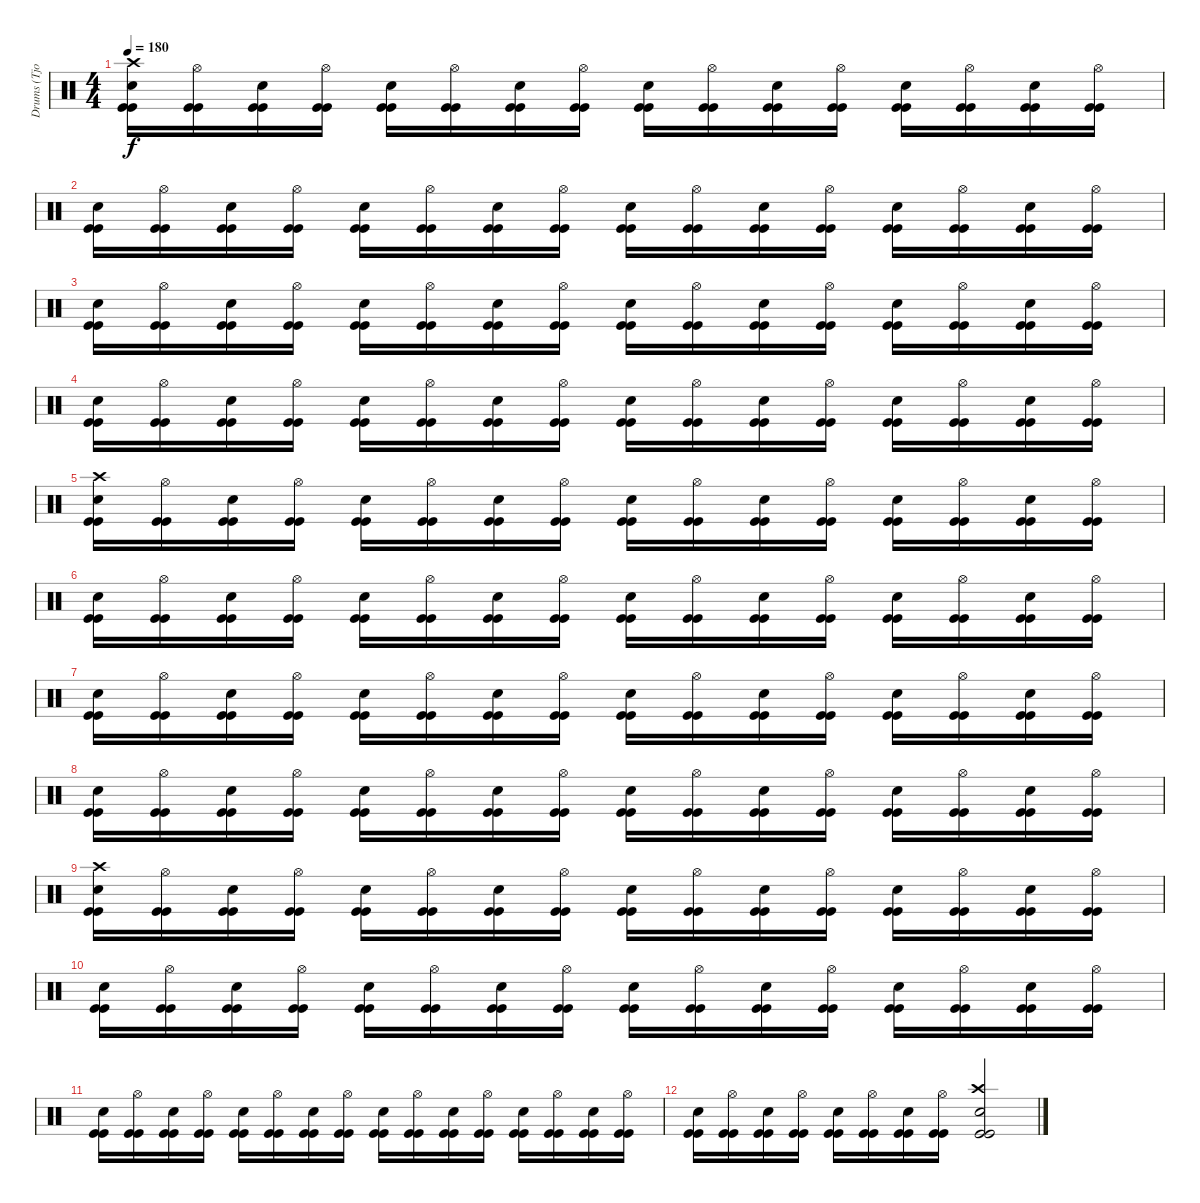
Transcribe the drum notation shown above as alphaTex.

\track ("Drums (Tjodalv)" "Drums (Tjo") {instrument percussion}
\staff {score}
\articulation defaults
\ts (4 4)
\tempo 180
\clef neutral
\ks c
("Snare (hit) 2" "Crash high (hit)" "Kick (hit)" "Kick (hit)").16{dy f} ("Hi-Hat (open)" "Kick (hit)" "Kick (hit)").16 ("Snare (hit) 2" "Kick (hit)" "Kick (hit)").16 ("Hi-Hat (open)" "Kick (hit)" "Kick (hit)").16 ("Snare (hit) 2" "Kick (hit)" "Kick (hit)").16 ("Hi-Hat (open)" "Kick (hit)" "Kick (hit)").16 ("Snare (hit) 2" "Kick (hit)" "Kick (hit)").16 ("Hi-Hat (open)" "Kick (hit)" "Kick (hit)").16 ("Snare (hit) 2" "Kick (hit)" "Kick (hit)").16 ("Hi-Hat (open)" "Kick (hit)" "Kick (hit)").16 ("Snare (hit) 2" "Kick (hit)" "Kick (hit)").16 ("Hi-Hat (open)" "Kick (hit)" "Kick (hit)").16 ("Snare (hit) 2" "Kick (hit)" "Kick (hit)").16 ("Hi-Hat (open)" "Kick (hit)" "Kick (hit)").16 ("Snare (hit) 2" "Kick (hit)" "Kick (hit)").16 ("Hi-Hat (open)" "Kick (hit)" "Kick (hit)").16 |
("Snare (hit) 2" "Kick (hit)" "Kick (hit)").16 ("Hi-Hat (open)" "Kick (hit)" "Kick (hit)").16 ("Snare (hit) 2" "Kick (hit)" "Kick (hit)").16 ("Hi-Hat (open)" "Kick (hit)" "Kick (hit)").16 ("Snare (hit) 2" "Kick (hit)" "Kick (hit)").16 ("Hi-Hat (open)" "Kick (hit)" "Kick (hit)").16 ("Snare (hit) 2" "Kick (hit)" "Kick (hit)").16 ("Hi-Hat (open)" "Kick (hit)" "Kick (hit)").16 ("Snare (hit) 2" "Kick (hit)" "Kick (hit)").16 ("Hi-Hat (open)" "Kick (hit)" "Kick (hit)").16 ("Snare (hit) 2" "Kick (hit)" "Kick (hit)").16 ("Hi-Hat (open)" "Kick (hit)" "Kick (hit)").16 ("Snare (hit) 2" "Kick (hit)" "Kick (hit)").16 ("Hi-Hat (open)" "Kick (hit)" "Kick (hit)").16 ("Snare (hit) 2" "Kick (hit)" "Kick (hit)").16 ("Hi-Hat (open)" "Kick (hit)" "Kick (hit)").16 |
("Snare (hit) 2" "Kick (hit)" "Kick (hit)").16 ("Hi-Hat (open)" "Kick (hit)" "Kick (hit)").16 ("Snare (hit) 2" "Kick (hit)" "Kick (hit)").16 ("Hi-Hat (open)" "Kick (hit)" "Kick (hit)").16 ("Snare (hit) 2" "Kick (hit)" "Kick (hit)").16 ("Hi-Hat (open)" "Kick (hit)" "Kick (hit)").16 ("Snare (hit) 2" "Kick (hit)" "Kick (hit)").16 ("Hi-Hat (open)" "Kick (hit)" "Kick (hit)").16 ("Snare (hit) 2" "Kick (hit)" "Kick (hit)").16 ("Hi-Hat (open)" "Kick (hit)" "Kick (hit)").16 ("Snare (hit) 2" "Kick (hit)" "Kick (hit)").16 ("Hi-Hat (open)" "Kick (hit)" "Kick (hit)").16 ("Snare (hit) 2" "Kick (hit)" "Kick (hit)").16 ("Hi-Hat (open)" "Kick (hit)" "Kick (hit)").16 ("Snare (hit) 2" "Kick (hit)" "Kick (hit)").16 ("Hi-Hat (open)" "Kick (hit)" "Kick (hit)").16 |
("Snare (hit) 2" "Kick (hit)" "Kick (hit)").16 ("Hi-Hat (open)" "Kick (hit)" "Kick (hit)").16 ("Snare (hit) 2" "Kick (hit)" "Kick (hit)").16 ("Hi-Hat (open)" "Kick (hit)" "Kick (hit)").16 ("Snare (hit) 2" "Kick (hit)" "Kick (hit)").16 ("Hi-Hat (open)" "Kick (hit)" "Kick (hit)").16 ("Snare (hit) 2" "Kick (hit)" "Kick (hit)").16 ("Hi-Hat (open)" "Kick (hit)" "Kick (hit)").16 ("Snare (hit) 2" "Kick (hit)" "Kick (hit)").16 ("Hi-Hat (open)" "Kick (hit)" "Kick (hit)").16 ("Snare (hit) 2" "Kick (hit)" "Kick (hit)").16 ("Hi-Hat (open)" "Kick (hit)" "Kick (hit)").16 ("Snare (hit) 2" "Kick (hit)" "Kick (hit)").16 ("Hi-Hat (open)" "Kick (hit)" "Kick (hit)").16 ("Snare (hit) 2" "Kick (hit)" "Kick (hit)").16 ("Hi-Hat (open)" "Kick (hit)" "Kick (hit)").16 |
("Snare (hit) 2" "Crash high (hit)" "Kick (hit)" "Kick (hit)").16 ("Hi-Hat (open)" "Kick (hit)" "Kick (hit)").16 ("Snare (hit) 2" "Kick (hit)" "Kick (hit)").16 ("Hi-Hat (open)" "Kick (hit)" "Kick (hit)").16 ("Snare (hit) 2" "Kick (hit)" "Kick (hit)").16 ("Hi-Hat (open)" "Kick (hit)" "Kick (hit)").16 ("Snare (hit) 2" "Kick (hit)" "Kick (hit)").16 ("Hi-Hat (open)" "Kick (hit)" "Kick (hit)").16 ("Snare (hit) 2" "Kick (hit)" "Kick (hit)").16 ("Hi-Hat (open)" "Kick (hit)" "Kick (hit)").16 ("Snare (hit) 2" "Kick (hit)" "Kick (hit)").16 ("Hi-Hat (open)" "Kick (hit)" "Kick (hit)").16 ("Snare (hit) 2" "Kick (hit)" "Kick (hit)").16 ("Hi-Hat (open)" "Kick (hit)" "Kick (hit)").16 ("Snare (hit) 2" "Kick (hit)" "Kick (hit)").16 ("Hi-Hat (open)" "Kick (hit)" "Kick (hit)").16 |
("Snare (hit) 2" "Kick (hit)" "Kick (hit)").16 ("Hi-Hat (open)" "Kick (hit)" "Kick (hit)").16 ("Snare (hit) 2" "Kick (hit)" "Kick (hit)").16 ("Hi-Hat (open)" "Kick (hit)" "Kick (hit)").16 ("Snare (hit) 2" "Kick (hit)" "Kick (hit)").16 ("Hi-Hat (open)" "Kick (hit)" "Kick (hit)").16 ("Snare (hit) 2" "Kick (hit)" "Kick (hit)").16 ("Hi-Hat (open)" "Kick (hit)" "Kick (hit)").16 ("Snare (hit) 2" "Kick (hit)" "Kick (hit)").16 ("Hi-Hat (open)" "Kick (hit)" "Kick (hit)").16 ("Snare (hit) 2" "Kick (hit)" "Kick (hit)").16 ("Hi-Hat (open)" "Kick (hit)" "Kick (hit)").16 ("Snare (hit) 2" "Kick (hit)" "Kick (hit)").16 ("Hi-Hat (open)" "Kick (hit)" "Kick (hit)").16 ("Snare (hit) 2" "Kick (hit)" "Kick (hit)").16 ("Hi-Hat (open)" "Kick (hit)" "Kick (hit)").16 |
("Snare (hit) 2" "Kick (hit)" "Kick (hit)").16 ("Hi-Hat (open)" "Kick (hit)" "Kick (hit)").16 ("Snare (hit) 2" "Kick (hit)" "Kick (hit)").16 ("Hi-Hat (open)" "Kick (hit)" "Kick (hit)").16 ("Snare (hit) 2" "Kick (hit)" "Kick (hit)").16 ("Hi-Hat (open)" "Kick (hit)" "Kick (hit)").16 ("Snare (hit) 2" "Kick (hit)" "Kick (hit)").16 ("Hi-Hat (open)" "Kick (hit)" "Kick (hit)").16 ("Snare (hit) 2" "Kick (hit)" "Kick (hit)").16 ("Hi-Hat (open)" "Kick (hit)" "Kick (hit)").16 ("Snare (hit) 2" "Kick (hit)" "Kick (hit)").16 ("Hi-Hat (open)" "Kick (hit)" "Kick (hit)").16 ("Snare (hit) 2" "Kick (hit)" "Kick (hit)").16 ("Hi-Hat (open)" "Kick (hit)" "Kick (hit)").16 ("Snare (hit) 2" "Kick (hit)" "Kick (hit)").16 ("Hi-Hat (open)" "Kick (hit)" "Kick (hit)").16 |
("Snare (hit) 2" "Kick (hit)" "Kick (hit)").16 ("Hi-Hat (open)" "Kick (hit)" "Kick (hit)").16 ("Snare (hit) 2" "Kick (hit)" "Kick (hit)").16 ("Hi-Hat (open)" "Kick (hit)" "Kick (hit)").16 ("Snare (hit) 2" "Kick (hit)" "Kick (hit)").16 ("Hi-Hat (open)" "Kick (hit)" "Kick (hit)").16 ("Snare (hit) 2" "Kick (hit)" "Kick (hit)").16 ("Hi-Hat (open)" "Kick (hit)" "Kick (hit)").16 ("Snare (hit) 2" "Kick (hit)" "Kick (hit)").16 ("Hi-Hat (open)" "Kick (hit)" "Kick (hit)").16 ("Snare (hit) 2" "Kick (hit)" "Kick (hit)").16 ("Hi-Hat (open)" "Kick (hit)" "Kick (hit)").16 ("Snare (hit) 2" "Kick (hit)" "Kick (hit)").16 ("Hi-Hat (open)" "Kick (hit)" "Kick (hit)").16 ("Snare (hit) 2" "Kick (hit)" "Kick (hit)").16 ("Hi-Hat (open)" "Kick (hit)" "Kick (hit)").16 |
("Snare (hit) 2" "Crash high (hit)" "Kick (hit)" "Kick (hit)").16 ("Hi-Hat (open)" "Kick (hit)" "Kick (hit)").16 ("Snare (hit) 2" "Kick (hit)" "Kick (hit)").16 ("Hi-Hat (open)" "Kick (hit)" "Kick (hit)").16 ("Snare (hit) 2" "Kick (hit)" "Kick (hit)").16 ("Hi-Hat (open)" "Kick (hit)" "Kick (hit)").16 ("Snare (hit) 2" "Kick (hit)" "Kick (hit)").16 ("Hi-Hat (open)" "Kick (hit)" "Kick (hit)").16 ("Snare (hit) 2" "Kick (hit)" "Kick (hit)").16 ("Hi-Hat (open)" "Kick (hit)" "Kick (hit)").16 ("Snare (hit) 2" "Kick (hit)" "Kick (hit)").16 ("Hi-Hat (open)" "Kick (hit)" "Kick (hit)").16 ("Snare (hit) 2" "Kick (hit)" "Kick (hit)").16 ("Hi-Hat (open)" "Kick (hit)" "Kick (hit)").16 ("Snare (hit) 2" "Kick (hit)" "Kick (hit)").16 ("Hi-Hat (open)" "Kick (hit)" "Kick (hit)").16 |
("Snare (hit) 2" "Kick (hit)" "Kick (hit)").16 ("Hi-Hat (open)" "Kick (hit)" "Kick (hit)").16 ("Snare (hit) 2" "Kick (hit)" "Kick (hit)").16 ("Hi-Hat (open)" "Kick (hit)" "Kick (hit)").16 ("Snare (hit) 2" "Kick (hit)" "Kick (hit)").16 ("Hi-Hat (open)" "Kick (hit)" "Kick (hit)").16 ("Snare (hit) 2" "Kick (hit)" "Kick (hit)").16 ("Hi-Hat (open)" "Kick (hit)" "Kick (hit)").16 ("Snare (hit) 2" "Kick (hit)" "Kick (hit)").16 ("Hi-Hat (open)" "Kick (hit)" "Kick (hit)").16 ("Snare (hit) 2" "Kick (hit)" "Kick (hit)").16 ("Hi-Hat (open)" "Kick (hit)" "Kick (hit)").16 ("Snare (hit) 2" "Kick (hit)" "Kick (hit)").16 ("Hi-Hat (open)" "Kick (hit)" "Kick (hit)").16 ("Snare (hit) 2" "Kick (hit)" "Kick (hit)").16 ("Hi-Hat (open)" "Kick (hit)" "Kick (hit)").16 |
("Snare (hit) 2" "Kick (hit)" "Kick (hit)").16 ("Hi-Hat (open)" "Kick (hit)" "Kick (hit)").16 ("Snare (hit) 2" "Kick (hit)" "Kick (hit)").16 ("Hi-Hat (open)" "Kick (hit)" "Kick (hit)").16 ("Snare (hit) 2" "Kick (hit)" "Kick (hit)").16 ("Hi-Hat (open)" "Kick (hit)" "Kick (hit)").16 ("Snare (hit) 2" "Kick (hit)" "Kick (hit)").16 ("Hi-Hat (open)" "Kick (hit)" "Kick (hit)").16 ("Snare (hit) 2" "Kick (hit)" "Kick (hit)").16 ("Hi-Hat (open)" "Kick (hit)" "Kick (hit)").16 ("Snare (hit) 2" "Kick (hit)" "Kick (hit)").16 ("Hi-Hat (open)" "Kick (hit)" "Kick (hit)").16 ("Snare (hit) 2" "Kick (hit)" "Kick (hit)").16 ("Hi-Hat (open)" "Kick (hit)" "Kick (hit)").16 ("Snare (hit) 2" "Kick (hit)" "Kick (hit)").16 ("Hi-Hat (open)" "Kick (hit)" "Kick (hit)").16 |
("Snare (hit) 2" "Kick (hit)" "Kick (hit)").16 ("Hi-Hat (open)" "Kick (hit)" "Kick (hit)").16 ("Snare (hit) 2" "Kick (hit)" "Kick (hit)").16 ("Hi-Hat (open)" "Kick (hit)" "Kick (hit)").16 ("Snare (hit) 2" "Kick (hit)" "Kick (hit)").16 ("Hi-Hat (open)" "Kick (hit)" "Kick (hit)").16 ("Snare (hit) 2" "Kick (hit)" "Kick (hit)").16 ("Hi-Hat (open)" "Kick (hit)" "Kick (hit)").16 ("Snare (hit) 2" "Crash high (hit)" "Kick (hit)" "Kick (hit)").2
